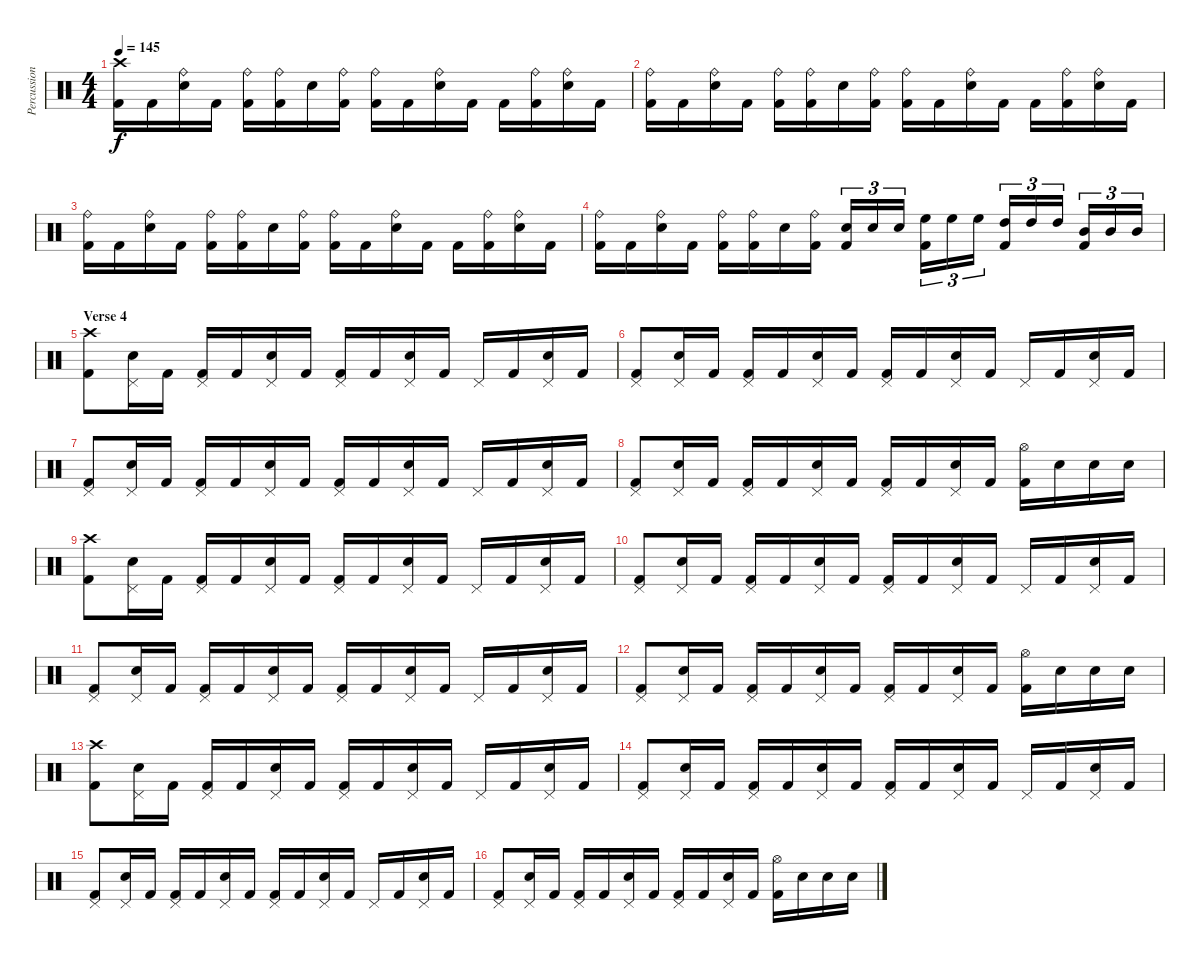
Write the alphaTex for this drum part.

\track ("Percussion" "Percussion") {instrument percussion}
\staff {score}
\articulation defaults
\ts (4 4)
\tempo 145
\clef neutral
\ks c
("Kick (hit) 2" "Crash high (hit)").16{dy f} "Kick (hit) 2".16 ("Electric Snare (hit)" "Ride (bell)").16 "Kick (hit) 2".16 ("Kick (hit) 2" "Ride (bell)").16 ("Kick (hit) 2" "Ride (bell)").16 "Electric Snare (hit)".16 ("Kick (hit) 2" "Ride (bell)").16 ("Kick (hit) 2" "Ride (bell)").16 "Kick (hit) 2".16 ("Electric Snare (hit)" "Ride (bell)").16 "Kick (hit) 2".16 "Kick (hit) 2".16 ("Kick (hit) 2" "Ride (bell)").16 ("Electric Snare (hit)" "Ride (bell)").16 "Kick (hit) 2".16 |
("Kick (hit) 2" "Ride (bell)").16 "Kick (hit) 2".16 ("Electric Snare (hit)" "Ride (bell)").16 "Kick (hit) 2".16 ("Kick (hit) 2" "Ride (bell)").16 ("Kick (hit) 2" "Ride (bell)").16 "Electric Snare (hit)".16 ("Kick (hit) 2" "Ride (bell)").16 ("Kick (hit) 2" "Ride (bell)").16 "Kick (hit) 2".16 ("Electric Snare (hit)" "Ride (bell)").16 "Kick (hit) 2".16 "Kick (hit) 2".16 ("Kick (hit) 2" "Ride (bell)").16 ("Electric Snare (hit)" "Ride (bell)").16 "Kick (hit) 2".16 |
("Kick (hit) 2" "Ride (bell)").16 "Kick (hit) 2".16 ("Electric Snare (hit)" "Ride (bell)").16 "Kick (hit) 2".16 ("Kick (hit) 2" "Ride (bell)").16 ("Kick (hit) 2" "Ride (bell)").16 "Electric Snare (hit)".16 ("Kick (hit) 2" "Ride (bell)").16 ("Kick (hit) 2" "Ride (bell)").16 "Kick (hit) 2".16 ("Electric Snare (hit)" "Ride (bell)").16 "Kick (hit) 2".16 "Kick (hit) 2".16 ("Kick (hit) 2" "Ride (bell)").16 ("Electric Snare (hit)" "Ride (bell)").16 "Kick (hit) 2".16 |
("Kick (hit) 2" "Ride (bell)").16 "Kick (hit) 2".16 ("Electric Snare (hit)" "Ride (bell)").16 "Kick (hit) 2".16 ("Kick (hit) 2" "Ride (bell)").16 ("Kick (hit) 2" "Ride (bell)").16 "Electric Snare (hit)".16 ("Kick (hit) 2" "Ride (bell)").16 ("Electric Snare (hit)" "Kick (hit) 2").16{tu (3 2)} "Electric Snare (hit)".16{tu (3 2)} "Electric Snare (hit)".16{tu (3 2)} ("High Floor Tom (hit)" "Kick (hit) 2").16{tu (3 2)} "High Floor Tom (hit)".16{tu (3 2)} "High Floor Tom (hit)".16{tu (3 2)} ("High Tom (hit)" "Kick (hit) 2").16{tu (3 2)} "High Tom (hit)".16{tu (3 2)} "High Tom (hit)".16{tu (3 2)} ("Mid Tom (hit)" "Kick (hit) 2").16{tu (3 2)} "Mid Tom (hit)".16{tu (3 2)} "Mid Tom (hit)".16{tu (3 2)} |
\section ("" "Verse 4")
("Kick (hit) 2" "Crash high (hit)").8 ("Electric Snare (hit)" "Pedal Hi-Hat (hit)").16 "Kick (hit) 2".16 ("Kick (hit) 2" "Pedal Hi-Hat (hit)").16 "Kick (hit) 2".16 ("Electric Snare (hit)" "Pedal Hi-Hat (hit)").16 "Kick (hit) 2".16 ("Kick (hit) 2" "Pedal Hi-Hat (hit)").16 "Kick (hit) 2".16 ("Electric Snare (hit)" "Pedal Hi-Hat (hit)").16 "Kick (hit) 2".16 "Pedal Hi-Hat (hit)".16 "Kick (hit) 2".16 ("Electric Snare (hit)" "Pedal Hi-Hat (hit)").16 "Kick (hit) 2".16 |
("Kick (hit) 2" "Pedal Hi-Hat (hit)").8 ("Electric Snare (hit)" "Pedal Hi-Hat (hit)").16 "Kick (hit) 2".16 ("Kick (hit) 2" "Pedal Hi-Hat (hit)").16 "Kick (hit) 2".16 ("Electric Snare (hit)" "Pedal Hi-Hat (hit)").16 "Kick (hit) 2".16 ("Kick (hit) 2" "Pedal Hi-Hat (hit)").16 "Kick (hit) 2".16 ("Electric Snare (hit)" "Pedal Hi-Hat (hit)").16 "Kick (hit) 2".16 "Pedal Hi-Hat (hit)".16 "Kick (hit) 2".16 ("Electric Snare (hit)" "Pedal Hi-Hat (hit)").16 "Kick (hit) 2".16 |
("Kick (hit) 2" "Pedal Hi-Hat (hit)").8 ("Electric Snare (hit)" "Pedal Hi-Hat (hit)").16 "Kick (hit) 2".16 ("Kick (hit) 2" "Pedal Hi-Hat (hit)").16 "Kick (hit) 2".16 ("Electric Snare (hit)" "Pedal Hi-Hat (hit)").16 "Kick (hit) 2".16 ("Kick (hit) 2" "Pedal Hi-Hat (hit)").16 "Kick (hit) 2".16 ("Electric Snare (hit)" "Pedal Hi-Hat (hit)").16 "Kick (hit) 2".16 "Pedal Hi-Hat (hit)".16 "Kick (hit) 2".16 ("Electric Snare (hit)" "Pedal Hi-Hat (hit)").16 "Kick (hit) 2".16 |
("Kick (hit) 2" "Pedal Hi-Hat (hit)").8 ("Electric Snare (hit)" "Pedal Hi-Hat (hit)").16 "Kick (hit) 2".16 ("Kick (hit) 2" "Pedal Hi-Hat (hit)").16 "Kick (hit) 2".16 ("Electric Snare (hit)" "Pedal Hi-Hat (hit)").16 "Kick (hit) 2".16 ("Kick (hit) 2" "Pedal Hi-Hat (hit)").16 "Kick (hit) 2".16 ("Electric Snare (hit)" "Pedal Hi-Hat (hit)").16 "Kick (hit) 2".16 ("Kick (hit) 2" "Hi-Hat (open)").16 "Electric Snare (hit)".16 "Electric Snare (hit)".16 "Electric Snare (hit)".16 |
("Kick (hit) 2" "Crash high (hit)").8 ("Electric Snare (hit)" "Pedal Hi-Hat (hit)").16 "Kick (hit) 2".16 ("Kick (hit) 2" "Pedal Hi-Hat (hit)").16 "Kick (hit) 2".16 ("Electric Snare (hit)" "Pedal Hi-Hat (hit)").16 "Kick (hit) 2".16 ("Kick (hit) 2" "Pedal Hi-Hat (hit)").16 "Kick (hit) 2".16 ("Electric Snare (hit)" "Pedal Hi-Hat (hit)").16 "Kick (hit) 2".16 "Pedal Hi-Hat (hit)".16 "Kick (hit) 2".16 ("Electric Snare (hit)" "Pedal Hi-Hat (hit)").16 "Kick (hit) 2".16 |
("Kick (hit) 2" "Pedal Hi-Hat (hit)").8 ("Electric Snare (hit)" "Pedal Hi-Hat (hit)").16 "Kick (hit) 2".16 ("Kick (hit) 2" "Pedal Hi-Hat (hit)").16 "Kick (hit) 2".16 ("Electric Snare (hit)" "Pedal Hi-Hat (hit)").16 "Kick (hit) 2".16 ("Kick (hit) 2" "Pedal Hi-Hat (hit)").16 "Kick (hit) 2".16 ("Electric Snare (hit)" "Pedal Hi-Hat (hit)").16 "Kick (hit) 2".16 "Pedal Hi-Hat (hit)".16 "Kick (hit) 2".16 ("Electric Snare (hit)" "Pedal Hi-Hat (hit)").16 "Kick (hit) 2".16 |
("Kick (hit) 2" "Pedal Hi-Hat (hit)").8 ("Electric Snare (hit)" "Pedal Hi-Hat (hit)").16 "Kick (hit) 2".16 ("Kick (hit) 2" "Pedal Hi-Hat (hit)").16 "Kick (hit) 2".16 ("Electric Snare (hit)" "Pedal Hi-Hat (hit)").16 "Kick (hit) 2".16 ("Kick (hit) 2" "Pedal Hi-Hat (hit)").16 "Kick (hit) 2".16 ("Electric Snare (hit)" "Pedal Hi-Hat (hit)").16 "Kick (hit) 2".16 "Pedal Hi-Hat (hit)".16 "Kick (hit) 2".16 ("Electric Snare (hit)" "Pedal Hi-Hat (hit)").16 "Kick (hit) 2".16 |
("Kick (hit) 2" "Pedal Hi-Hat (hit)").8 ("Electric Snare (hit)" "Pedal Hi-Hat (hit)").16 "Kick (hit) 2".16 ("Kick (hit) 2" "Pedal Hi-Hat (hit)").16 "Kick (hit) 2".16 ("Electric Snare (hit)" "Pedal Hi-Hat (hit)").16 "Kick (hit) 2".16 ("Kick (hit) 2" "Pedal Hi-Hat (hit)").16 "Kick (hit) 2".16 ("Electric Snare (hit)" "Pedal Hi-Hat (hit)").16 "Kick (hit) 2".16 ("Kick (hit) 2" "Hi-Hat (open)").16 "Electric Snare (hit)".16 "Electric Snare (hit)".16 "Electric Snare (hit)".16 |
("Kick (hit) 2" "Crash high (hit)").8 ("Electric Snare (hit)" "Pedal Hi-Hat (hit)").16 "Kick (hit) 2".16 ("Kick (hit) 2" "Pedal Hi-Hat (hit)").16 "Kick (hit) 2".16 ("Electric Snare (hit)" "Pedal Hi-Hat (hit)").16 "Kick (hit) 2".16 ("Kick (hit) 2" "Pedal Hi-Hat (hit)").16 "Kick (hit) 2".16 ("Electric Snare (hit)" "Pedal Hi-Hat (hit)").16 "Kick (hit) 2".16 "Pedal Hi-Hat (hit)".16 "Kick (hit) 2".16 ("Electric Snare (hit)" "Pedal Hi-Hat (hit)").16 "Kick (hit) 2".16 |
("Kick (hit) 2" "Pedal Hi-Hat (hit)").8 ("Electric Snare (hit)" "Pedal Hi-Hat (hit)").16 "Kick (hit) 2".16 ("Kick (hit) 2" "Pedal Hi-Hat (hit)").16 "Kick (hit) 2".16 ("Electric Snare (hit)" "Pedal Hi-Hat (hit)").16 "Kick (hit) 2".16 ("Kick (hit) 2" "Pedal Hi-Hat (hit)").16 "Kick (hit) 2".16 ("Electric Snare (hit)" "Pedal Hi-Hat (hit)").16 "Kick (hit) 2".16 "Pedal Hi-Hat (hit)".16 "Kick (hit) 2".16 ("Electric Snare (hit)" "Pedal Hi-Hat (hit)").16 "Kick (hit) 2".16 |
("Kick (hit) 2" "Pedal Hi-Hat (hit)").8 ("Electric Snare (hit)" "Pedal Hi-Hat (hit)").16 "Kick (hit) 2".16 ("Kick (hit) 2" "Pedal Hi-Hat (hit)").16 "Kick (hit) 2".16 ("Electric Snare (hit)" "Pedal Hi-Hat (hit)").16 "Kick (hit) 2".16 ("Kick (hit) 2" "Pedal Hi-Hat (hit)").16 "Kick (hit) 2".16 ("Electric Snare (hit)" "Pedal Hi-Hat (hit)").16 "Kick (hit) 2".16 "Pedal Hi-Hat (hit)".16 "Kick (hit) 2".16 ("Electric Snare (hit)" "Pedal Hi-Hat (hit)").16 "Kick (hit) 2".16 |
("Kick (hit) 2" "Pedal Hi-Hat (hit)").8 ("Electric Snare (hit)" "Pedal Hi-Hat (hit)").16 "Kick (hit) 2".16 ("Kick (hit) 2" "Pedal Hi-Hat (hit)").16 "Kick (hit) 2".16 ("Electric Snare (hit)" "Pedal Hi-Hat (hit)").16 "Kick (hit) 2".16 ("Kick (hit) 2" "Pedal Hi-Hat (hit)").16 "Kick (hit) 2".16 ("Electric Snare (hit)" "Pedal Hi-Hat (hit)").16 "Kick (hit) 2".16 ("Kick (hit) 2" "Hi-Hat (open)").16 "Electric Snare (hit)".16 "Electric Snare (hit)".16 "Electric Snare (hit)".16
